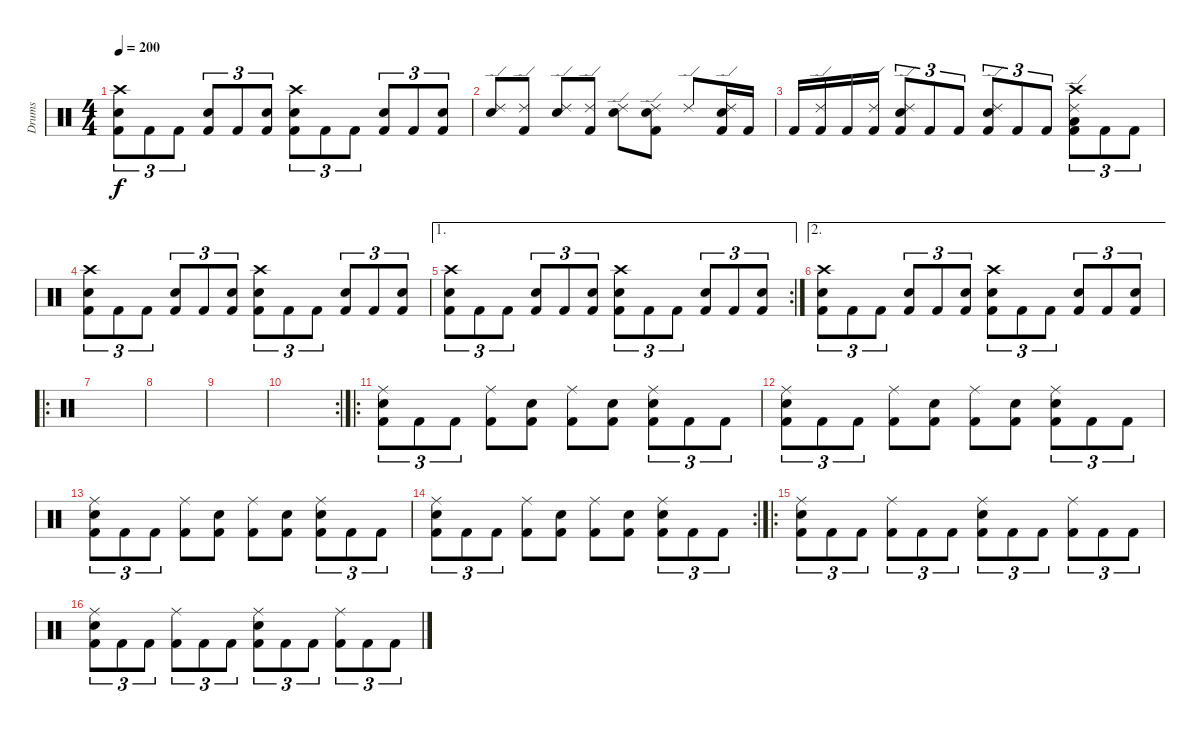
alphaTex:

\track ("Drums" "Drums") {instrument percussion}
\staff {score}
\articulation defaults
\ts (4 4)
\tempo 200
\clef neutral
\ks c
("Crash high (hit)" "Snare (hit) 2" "Kick (hit) 2").8{tu (3 2) dy f} "Kick (hit) 2".8{tu (3 2)} "Kick (hit) 2".8{tu (3 2)} ("Snare (hit) 2" "Kick (hit) 2").8{tu (3 2)} "Kick (hit) 2".8{tu (3 2)} ("Snare (hit) 2" "Kick (hit) 2").8{tu (3 2)} ("Crash high (hit)" "Snare (hit) 2" "Kick (hit) 2").8{tu (3 2)} "Kick (hit) 2".8{tu (3 2)} "Kick (hit) 2".8{tu (3 2)} ("Snare (hit) 2" "Kick (hit) 2").8{tu (3 2)} "Kick (hit) 2".8{tu (3 2)} ("Snare (hit) 2" "Kick (hit) 2").8{tu (3 2)} |
("Ride (edge) 2" "Snare (hit) 2").8 ("Ride (edge) 2" "Kick (hit) 2").8 ("Ride (edge) 2" "Snare (hit) 2").8 ("Ride (edge) 2" "Kick (hit) 2").8 ("Ride (edge) 2" "Snare (hit) 2").8 ("Ride (edge) 2" "Snare (hit) 2" "Kick (hit) 2").8 "Ride (edge) 2".8 ("Ride (edge) 2" "Snare (hit) 2" "Kick (hit) 2").16 "Kick (hit) 2".16 |
"Kick (hit) 2".16 ("Ride (edge) 2" "Kick (hit) 2").16 "Kick (hit) 2".16 ("Ride (edge) 2" "Kick (hit) 2").16 ("Ride (edge) 2" "Snare (hit) 2" "Kick (hit) 2").8{tu (3 2)} "Kick (hit) 2".8{tu (3 2)} "Kick (hit) 2".8{tu (3 2)} ("Ride (edge) 2" "Snare (hit) 2" "Kick (hit) 2").8{tu (3 2)} "Kick (hit) 2".8{tu (3 2)} "Kick (hit) 2".8{tu (3 2)} ("Ride (edge) 2" "Crash high (hit)" "Low Floor Tom (hit)" "Kick (hit) 2").8{tu (3 2)} "Kick (hit) 2".8{tu (3 2)} "Kick (hit) 2".8{tu (3 2)} |
("Crash high (hit)" "Snare (hit) 2" "Kick (hit) 2").8{tu (3 2)} "Kick (hit) 2".8{tu (3 2)} "Kick (hit) 2".8{tu (3 2)} ("Snare (hit) 2" "Kick (hit) 2").8{tu (3 2)} "Kick (hit) 2".8{tu (3 2)} ("Snare (hit) 2" "Kick (hit) 2").8{tu (3 2)} ("Crash high (hit)" "Snare (hit) 2" "Kick (hit) 2").8{tu (3 2)} "Kick (hit) 2".8{tu (3 2)} "Kick (hit) 2".8{tu (3 2)} ("Snare (hit) 2" "Kick (hit) 2").8{tu (3 2)} "Kick (hit) 2".8{tu (3 2)} ("Snare (hit) 2" "Kick (hit) 2").8{tu (3 2)} |
\ae 1
\rc 2
("Crash high (hit)" "Snare (hit) 2" "Kick (hit) 2").8{tu (3 2)} "Kick (hit) 2".8{tu (3 2)} "Kick (hit) 2".8{tu (3 2)} ("Snare (hit) 2" "Kick (hit) 2").8{tu (3 2)} "Kick (hit) 2".8{tu (3 2)} ("Snare (hit) 2" "Kick (hit) 2").8{tu (3 2)} ("Crash high (hit)" "Snare (hit) 2" "Kick (hit) 2").8{tu (3 2)} "Kick (hit) 2".8{tu (3 2)} "Kick (hit) 2".8{tu (3 2)} ("Snare (hit) 2" "Kick (hit) 2").8{tu (3 2)} "Kick (hit) 2".8{tu (3 2)} ("Snare (hit) 2" "Kick (hit) 2").8{tu (3 2)} |
\ae 2
("Crash high (hit)" "Snare (hit) 2" "Kick (hit) 2").8{tu (3 2)} "Kick (hit) 2".8{tu (3 2)} "Kick (hit) 2".8{tu (3 2)} ("Snare (hit) 2" "Kick (hit) 2").8{tu (3 2)} "Kick (hit) 2".8{tu (3 2)} ("Snare (hit) 2" "Kick (hit) 2").8{tu (3 2)} ("Crash high (hit)" "Snare (hit) 2" "Kick (hit) 2").8{tu (3 2)} "Kick (hit) 2".8{tu (3 2)} "Kick (hit) 2".8{tu (3 2)} ("Snare (hit) 2" "Kick (hit) 2").8{tu (3 2)} "Kick (hit) 2".8{tu (3 2)} ("Snare (hit) 2" "Kick (hit) 2").8{tu (3 2)} |
\ro
|
|
|
\rc 2
|
\ro
("Ride (middle)" "Snare (hit) 2" "Kick (hit) 2").8{tu (3 2)} "Kick (hit) 2".8{tu (3 2)} "Kick (hit) 2".8{tu (3 2)} ("Ride (middle)" "Kick (hit) 2").8 ("Snare (hit) 2" "Kick (hit) 2").8 ("Ride (middle)" "Kick (hit) 2").8 ("Snare (hit) 2" "Kick (hit) 2").8 ("Ride (middle)" "Snare (hit) 2" "Kick (hit) 2").8{tu (3 2)} "Kick (hit) 2".8{tu (3 2)} "Kick (hit) 2".8{tu (3 2)} |
("Ride (middle)" "Snare (hit) 2" "Kick (hit) 2").8{tu (3 2)} "Kick (hit) 2".8{tu (3 2)} "Kick (hit) 2".8{tu (3 2)} ("Ride (middle)" "Kick (hit) 2").8 ("Snare (hit) 2" "Kick (hit) 2").8 ("Ride (middle)" "Kick (hit) 2").8 ("Snare (hit) 2" "Kick (hit) 2").8 ("Ride (middle)" "Snare (hit) 2" "Kick (hit) 2").8{tu (3 2)} "Kick (hit) 2".8{tu (3 2)} "Kick (hit) 2".8{tu (3 2)} |
("Ride (middle)" "Snare (hit) 2" "Kick (hit) 2").8{tu (3 2)} "Kick (hit) 2".8{tu (3 2)} "Kick (hit) 2".8{tu (3 2)} ("Ride (middle)" "Kick (hit) 2").8 ("Snare (hit) 2" "Kick (hit) 2").8 ("Ride (middle)" "Kick (hit) 2").8 ("Snare (hit) 2" "Kick (hit) 2").8 ("Ride (middle)" "Snare (hit) 2" "Kick (hit) 2").8{tu (3 2)} "Kick (hit) 2".8{tu (3 2)} "Kick (hit) 2".8{tu (3 2)} |
\rc 2
("Ride (middle)" "Snare (hit) 2" "Kick (hit) 2").8{tu (3 2)} "Kick (hit) 2".8{tu (3 2)} "Kick (hit) 2".8{tu (3 2)} ("Ride (middle)" "Kick (hit) 2").8 ("Snare (hit) 2" "Kick (hit) 2").8 ("Ride (middle)" "Kick (hit) 2").8 ("Snare (hit) 2" "Kick (hit) 2").8 ("Ride (middle)" "Snare (hit) 2" "Kick (hit) 2").8{tu (3 2)} "Kick (hit) 2".8{tu (3 2)} "Kick (hit) 2".8{tu (3 2)} |
\ro
("Ride (middle)" "Snare (hit) 2" "Kick (hit) 2").8{tu (3 2)} "Kick (hit) 2".8{tu (3 2)} "Kick (hit) 2".8{tu (3 2)} ("Ride (middle)" "Kick (hit) 2").8{tu (3 2)} "Kick (hit) 2".8{tu (3 2)} "Kick (hit) 2".8{tu (3 2)} ("Ride (middle)" "Snare (hit) 2" "Kick (hit) 2").8{tu (3 2)} "Kick (hit) 2".8{tu (3 2)} "Kick (hit) 2".8{tu (3 2)} ("Ride (middle)" "Kick (hit) 2").8{tu (3 2)} "Kick (hit) 2".8{tu (3 2)} "Kick (hit) 2".8{tu (3 2)} |
("Ride (middle)" "Snare (hit) 2" "Kick (hit) 2").8{tu (3 2)} "Kick (hit) 2".8{tu (3 2)} "Kick (hit) 2".8{tu (3 2)} ("Ride (middle)" "Kick (hit) 2").8{tu (3 2)} "Kick (hit) 2".8{tu (3 2)} "Kick (hit) 2".8{tu (3 2)} ("Ride (middle)" "Snare (hit) 2" "Kick (hit) 2").8{tu (3 2)} "Kick (hit) 2".8{tu (3 2)} "Kick (hit) 2".8{tu (3 2)} ("Ride (middle)" "Kick (hit) 2").8{tu (3 2)} "Kick (hit) 2".8{tu (3 2)} "Kick (hit) 2".8{tu (3 2)}
